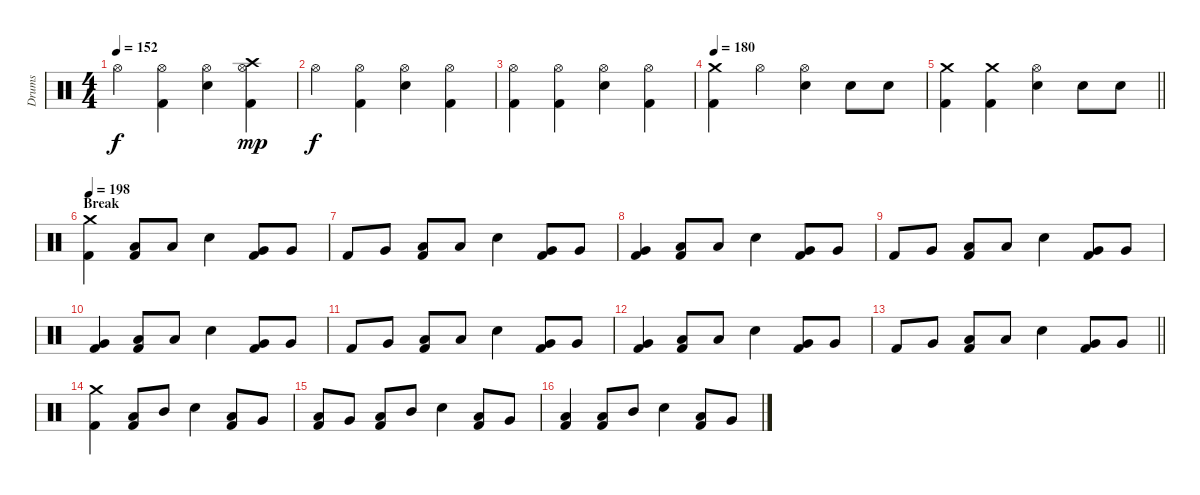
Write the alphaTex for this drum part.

\track ("Drums" "Drums") {instrument percussion}
\staff {score}
\articulation defaults
\ts (4 4)
\tempo 152
\clef neutral
\ks c "Hi-Hat (open)".4{dy f}
("Hi-Hat (open)" "Kick (hit) 2").4 ("Hi-Hat (open)" "Snare (hit) 2").4 ("Crash high (hit)" "Hi-Hat (open)" "Kick (hit) 2").4{dy mp} |
"Hi-Hat (open)".4{dy f} ("Hi-Hat (open)" "Kick (hit) 2").4 ("Hi-Hat (open)" "Snare (hit) 2").4 ("Hi-Hat (open)" "Kick (hit) 2").4 |
("Hi-Hat (open)" "Kick (hit) 2").4 ("Hi-Hat (open)" "Kick (hit) 2").4 ("Hi-Hat (open)" "Snare (hit) 2").4 ("Hi-Hat (open)" "Kick (hit) 2").4 |
\tempo 180
("Crash medium (hit)" "Kick (hit) 2").4 "Hi-Hat (open)".4 ("Hi-Hat (open)" "Snare (hit) 2").4 "Snare (hit) 2".8 "Snare (hit) 2".8 |
\barLineRight lightlight
("Crash medium (hit)" "Kick (hit) 2").4 ("Crash medium (hit)" "Kick (hit) 2").4 ("Hi-Hat (open)" "Snare (hit) 2").4 "Snare (hit) 2".8 "Snare (hit) 2".8 |
\section ("" "Break")
\tempo 198
("Crash medium (hit)" "Kick (hit) 2").4 ("Low Tom (hit)" "Kick (hit) 2").8 "Low Tom (hit)".8 "Snare (hit) 2".4 ("Very Low Tom (hit)" "Kick (hit) 2").8 "Very Low Tom (hit)".8 |
"Kick (hit) 2".8 "Very Low Tom (hit)".8 ("Low Tom (hit)" "Kick (hit) 2").8 "Low Tom (hit)".8 "Snare (hit) 2".4 ("Very Low Tom (hit)" "Kick (hit) 2").8 "Very Low Tom (hit)".8 |
("Very Low Tom (hit)" "Kick (hit) 2").4 ("Low Tom (hit)" "Kick (hit) 2").8 "Low Tom (hit)".8 "Snare (hit) 2".4 ("Very Low Tom (hit)" "Kick (hit) 2").8 "Very Low Tom (hit)".8 |
"Kick (hit) 2".8 "Very Low Tom (hit)".8 ("Low Tom (hit)" "Kick (hit) 2").8 "Low Tom (hit)".8 "Snare (hit) 2".4 ("Very Low Tom (hit)" "Kick (hit) 2").8 "Very Low Tom (hit)".8 |
("Very Low Tom (hit)" "Kick (hit) 2").4 ("Low Tom (hit)" "Kick (hit) 2").8 "Low Tom (hit)".8 "Snare (hit) 2".4 ("Very Low Tom (hit)" "Kick (hit) 2").8 "Very Low Tom (hit)".8 |
"Kick (hit) 2".8 "Very Low Tom (hit)".8 ("Low Tom (hit)" "Kick (hit) 2").8 "Low Tom (hit)".8 "Snare (hit) 2".4 ("Very Low Tom (hit)" "Kick (hit) 2").8 "Very Low Tom (hit)".8 |
("Very Low Tom (hit)" "Kick (hit) 2").4 ("Low Tom (hit)" "Kick (hit) 2").8 "Low Tom (hit)".8 "Snare (hit) 2".4 ("Very Low Tom (hit)" "Kick (hit) 2").8 "Very Low Tom (hit)".8 |
\barLineRight lightlight "Kick (hit) 2".8 "Very Low Tom (hit)".8
("Low Tom (hit)" "Kick (hit) 2").8 "Low Tom (hit)".8 "Snare (hit) 2".4 ("Very Low Tom (hit)" "Kick (hit) 2").8 "Very Low Tom (hit)".8 |
\section ("" "")
("Crash medium (hit)" "Kick (hit) 2").4 ("Low Tom (hit)" "Kick (hit) 2").8 "Mid Tom (hit)".8 "Snare (hit) 2".4 ("Low Floor Tom (hit)" "Kick (hit) 2").8 "Very Low Tom (hit)".8 |
("Low Floor Tom (hit)" "Kick (hit) 2").8 "Very Low Tom (hit)".8 ("Low Tom (hit)" "Kick (hit) 2").8 "Mid Tom (hit)".8 "Snare (hit) 2".4 ("Low Floor Tom (hit)" "Kick (hit) 2").8 "Very Low Tom (hit)".8 |
("Low Floor Tom (hit)" "Kick (hit) 2").4 ("Low Tom (hit)" "Kick (hit) 2").8 "Mid Tom (hit)".8 "Snare (hit) 2".4 ("Low Floor Tom (hit)" "Kick (hit) 2").8 "Very Low Tom (hit)".8
